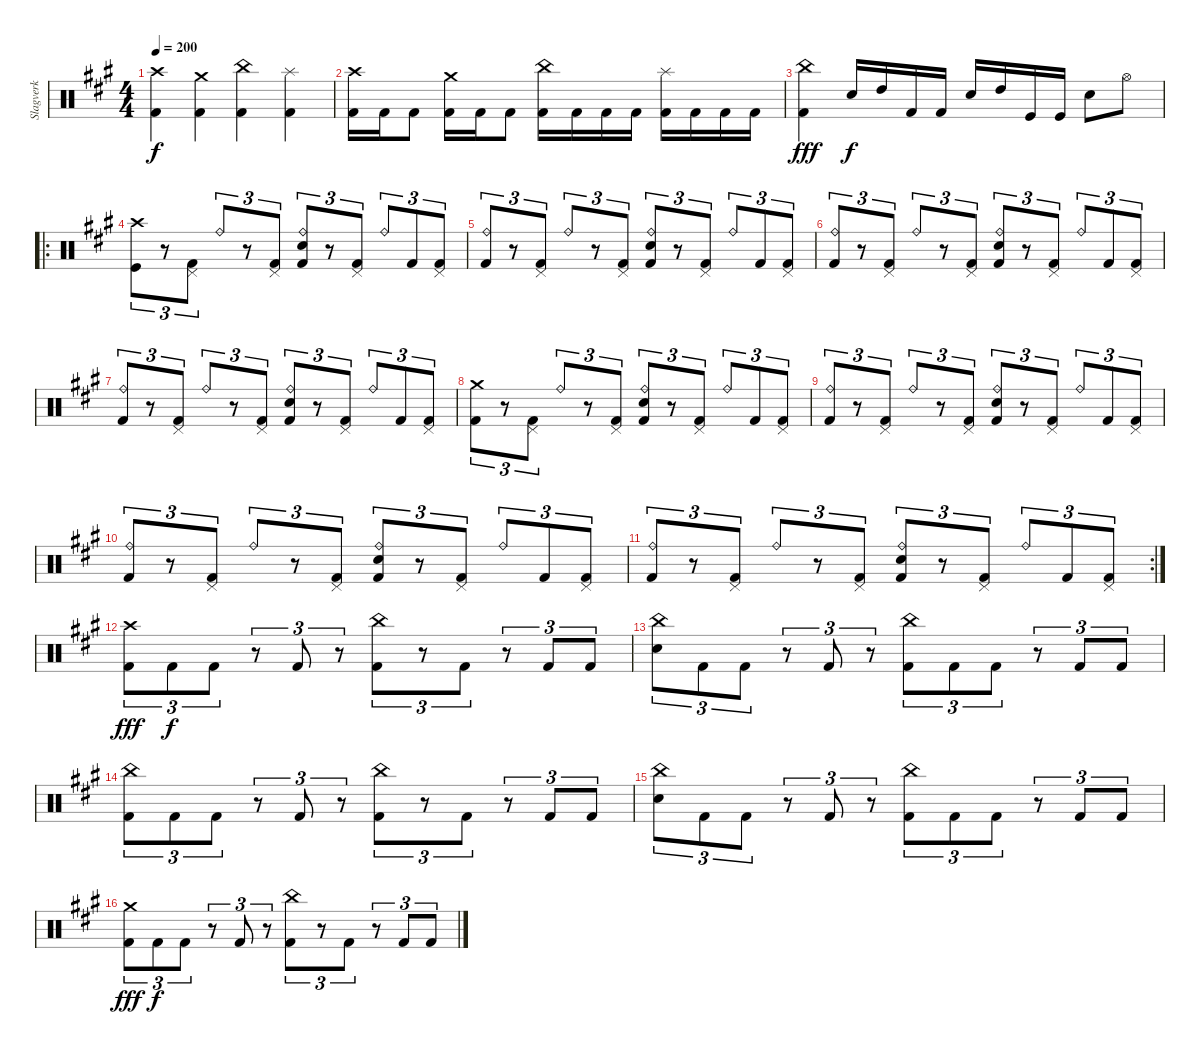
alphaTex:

\track ("Slagverk" "Slagverk") {instrument percussion}
\staff {score}
\articulation defaults
\ts (4 4)
\tempo 200
\clef neutral
\ks a
("Crash high (hit)" "Kick (hit) 2").4{dy f} ("Crash medium (hit)" "Kick (hit) 2").4 ("China (hit)" "Kick (hit) 2").4 ("Splash (hit)" "Kick (hit) 2").4 |
("Crash high (hit)" "Kick (hit) 2").16 "Kick (hit) 2".16 "Kick (hit) 2".8 ("Crash medium (hit)" "Kick (hit) 2").16 "Kick (hit) 2".16 "Kick (hit) 2".8 ("China (hit)" "Kick (hit) 2").16 "Kick (hit) 2".16 "Kick (hit) 2".16 "Kick (hit) 2".16 ("Splash (hit)" "Kick (hit) 2").16 "Kick (hit) 2".16 "Kick (hit) 2".16 "Kick (hit) 2".16 |
("China (hit)" "Kick (hit) 2").4{dy fff} "Electric Snare (hit)".16{dy f} "High Tom (hit)".16 "Kick (hit) 2".16 "Kick (hit) 2".16 "Electric Snare (hit)".16 "High Tom (hit)".16 "Kick (hit)".16 "Kick (hit)".16 "Electric Snare (hit)".8 "Hi-Hat (open)".8 |
\ro
("Crash high (hit)" "Kick (hit)").8{tu (3 2)} r.8{tu (3 2)} ("Pedal Hi-Hat (hit)" "Kick (hit) 2").8{tu (3 2)} "Ride (bell)".8{tu (3 2)} r.8{tu (3 2)} ("Pedal Hi-Hat (hit)" "Kick (hit) 2").8{tu (3 2)} ("Ride (bell)" "Snare (hit) 2" "Kick (hit) 2").8{tu (3 2)} r.8{tu (3 2)} ("Pedal Hi-Hat (hit)" "Kick (hit) 2").8{tu (3 2)} "Ride (bell)".8{tu (3 2)} "Kick (hit) 2".8{tu (3 2)} ("Pedal Hi-Hat (hit)" "Kick (hit) 2").8{tu (3 2)} |
("Ride (bell)" "Kick (hit) 2").8{tu (3 2)} r.8{tu (3 2)} ("Pedal Hi-Hat (hit)" "Kick (hit) 2").8{tu (3 2)} "Ride (bell)".8{tu (3 2)} r.8{tu (3 2)} ("Pedal Hi-Hat (hit)" "Kick (hit) 2").8{tu (3 2)} ("Ride (bell)" "Snare (hit) 2" "Kick (hit) 2").8{tu (3 2)} r.8{tu (3 2)} ("Pedal Hi-Hat (hit)" "Kick (hit) 2").8{tu (3 2)} "Ride (bell)".8{tu (3 2)} "Kick (hit) 2".8{tu (3 2)} ("Pedal Hi-Hat (hit)" "Kick (hit) 2").8{tu (3 2)} |
("Ride (bell)" "Kick (hit) 2").8{tu (3 2)} r.8{tu (3 2)} ("Pedal Hi-Hat (hit)" "Kick (hit) 2").8{tu (3 2)} "Ride (bell)".8{tu (3 2)} r.8{tu (3 2)} ("Pedal Hi-Hat (hit)" "Kick (hit) 2").8{tu (3 2)} ("Ride (bell)" "Snare (hit) 2" "Kick (hit) 2").8{tu (3 2)} r.8{tu (3 2)} ("Pedal Hi-Hat (hit)" "Kick (hit) 2").8{tu (3 2)} "Ride (bell)".8{tu (3 2)} "Kick (hit) 2".8{tu (3 2)} ("Pedal Hi-Hat (hit)" "Kick (hit) 2").8{tu (3 2)} |
("Ride (bell)" "Kick (hit) 2").8{tu (3 2)} r.8{tu (3 2)} ("Pedal Hi-Hat (hit)" "Kick (hit) 2").8{tu (3 2)} "Ride (bell)".8{tu (3 2)} r.8{tu (3 2)} ("Pedal Hi-Hat (hit)" "Kick (hit) 2").8{tu (3 2)} ("Ride (bell)" "Snare (hit) 2" "Kick (hit) 2").8{tu (3 2)} r.8{tu (3 2)} ("Pedal Hi-Hat (hit)" "Kick (hit) 2").8{tu (3 2)} "Ride (bell)".8{tu (3 2)} "Kick (hit) 2".8{tu (3 2)} ("Pedal Hi-Hat (hit)" "Kick (hit) 2").8{tu (3 2)} |
("Crash medium (hit)" "Kick (hit) 2").8{tu (3 2)} r.8{tu (3 2)} ("Pedal Hi-Hat (hit)" "Kick (hit) 2").8{tu (3 2)} "Ride (bell)".8{tu (3 2)} r.8{tu (3 2)} ("Pedal Hi-Hat (hit)" "Kick (hit) 2").8{tu (3 2)} ("Ride (bell)" "Snare (hit) 2" "Kick (hit) 2").8{tu (3 2)} r.8{tu (3 2)} ("Pedal Hi-Hat (hit)" "Kick (hit) 2").8{tu (3 2)} "Ride (bell)".8{tu (3 2)} "Kick (hit) 2".8{tu (3 2)} ("Pedal Hi-Hat (hit)" "Kick (hit) 2").8{tu (3 2)} |
("Ride (bell)" "Kick (hit) 2").8{tu (3 2)} r.8{tu (3 2)} ("Pedal Hi-Hat (hit)" "Kick (hit) 2").8{tu (3 2)} "Ride (bell)".8{tu (3 2)} r.8{tu (3 2)} ("Pedal Hi-Hat (hit)" "Kick (hit) 2").8{tu (3 2)} ("Ride (bell)" "Snare (hit) 2" "Kick (hit) 2").8{tu (3 2)} r.8{tu (3 2)} ("Pedal Hi-Hat (hit)" "Kick (hit) 2").8{tu (3 2)} "Ride (bell)".8{tu (3 2)} "Kick (hit) 2".8{tu (3 2)} ("Pedal Hi-Hat (hit)" "Kick (hit) 2").8{tu (3 2)} |
("Ride (bell)" "Kick (hit) 2").8{tu (3 2)} r.8{tu (3 2)} ("Pedal Hi-Hat (hit)" "Kick (hit) 2").8{tu (3 2)} "Ride (bell)".8{tu (3 2)} r.8{tu (3 2)} ("Pedal Hi-Hat (hit)" "Kick (hit) 2").8{tu (3 2)} ("Ride (bell)" "Snare (hit) 2" "Kick (hit) 2").8{tu (3 2)} r.8{tu (3 2)} ("Pedal Hi-Hat (hit)" "Kick (hit) 2").8{tu (3 2)} "Ride (bell)".8{tu (3 2)} "Kick (hit) 2".8{tu (3 2)} ("Pedal Hi-Hat (hit)" "Kick (hit) 2").8{tu (3 2)} |
\rc 2
("Ride (bell)" "Kick (hit) 2").8{tu (3 2)} r.8{tu (3 2)} ("Pedal Hi-Hat (hit)" "Kick (hit) 2").8{tu (3 2)} "Ride (bell)".8{tu (3 2)} r.8{tu (3 2)} ("Pedal Hi-Hat (hit)" "Kick (hit) 2").8{tu (3 2)} ("Ride (bell)" "Snare (hit) 2" "Kick (hit) 2").8{tu (3 2)} r.8{tu (3 2)} ("Pedal Hi-Hat (hit)" "Kick (hit) 2").8{tu (3 2)} "Ride (bell)".8{tu (3 2)} "Kick (hit) 2".8{tu (3 2)} ("Pedal Hi-Hat (hit)" "Kick (hit) 2").8{tu (3 2)} |
("Crash high (hit)" "Kick (hit) 2").8{tu (3 2) dy fff} "Kick (hit) 2".8{tu (3 2) dy f} "Kick (hit) 2".8{tu (3 2)} r.8{tu (3 2)} "Kick (hit) 2".8{tu (3 2)} r.8{tu (3 2)} ("China (hit)" "Kick (hit) 2").8{tu (3 2)} r.8{tu (3 2)} "Kick (hit) 2".8{tu (3 2)} r.8{tu (3 2)} "Kick (hit) 2".8{tu (3 2)} "Kick (hit) 2".8{tu (3 2)} |
("China (hit)" "Snare (hit) 2").8{tu (3 2)} "Kick (hit) 2".8{tu (3 2)} "Kick (hit) 2".8{tu (3 2)} r.8{tu (3 2)} "Kick (hit) 2".8{tu (3 2)} r.8{tu (3 2)} ("China (hit)" "Kick (hit) 2").8{tu (3 2)} "Kick (hit) 2".8{tu (3 2)} "Kick (hit) 2".8{tu (3 2)} r.8{tu (3 2)} "Kick (hit) 2".8{tu (3 2)} "Kick (hit) 2".8{tu (3 2)} |
("China (hit)" "Kick (hit) 2").8{tu (3 2)} "Kick (hit) 2".8{tu (3 2)} "Kick (hit) 2".8{tu (3 2)} r.8{tu (3 2)} "Kick (hit) 2".8{tu (3 2)} r.8{tu (3 2)} ("China (hit)" "Kick (hit) 2").8{tu (3 2)} r.8{tu (3 2)} "Kick (hit) 2".8{tu (3 2)} r.8{tu (3 2)} "Kick (hit) 2".8{tu (3 2)} "Kick (hit) 2".8{tu (3 2)} |
("China (hit)" "Snare (hit) 2").8{tu (3 2)} "Kick (hit) 2".8{tu (3 2)} "Kick (hit) 2".8{tu (3 2)} r.8{tu (3 2)} "Kick (hit) 2".8{tu (3 2)} r.8{tu (3 2)} ("China (hit)" "Kick (hit) 2").8{tu (3 2)} "Kick (hit) 2".8{tu (3 2)} "Kick (hit) 2".8{tu (3 2)} r.8{tu (3 2)} "Kick (hit) 2".8{tu (3 2)} "Kick (hit) 2".8{tu (3 2)} |
("Crash medium (hit)" "Kick (hit) 2").8{tu (3 2) dy fff} "Kick (hit) 2".8{tu (3 2) dy f} "Kick (hit) 2".8{tu (3 2)} r.8{tu (3 2)} "Kick (hit) 2".8{tu (3 2)} r.8{tu (3 2)} ("China (hit)" "Kick (hit) 2").8{tu (3 2)} r.8{tu (3 2)} "Kick (hit) 2".8{tu (3 2)} r.8{tu (3 2)} "Kick (hit) 2".8{tu (3 2)} "Kick (hit) 2".8{tu (3 2)}
